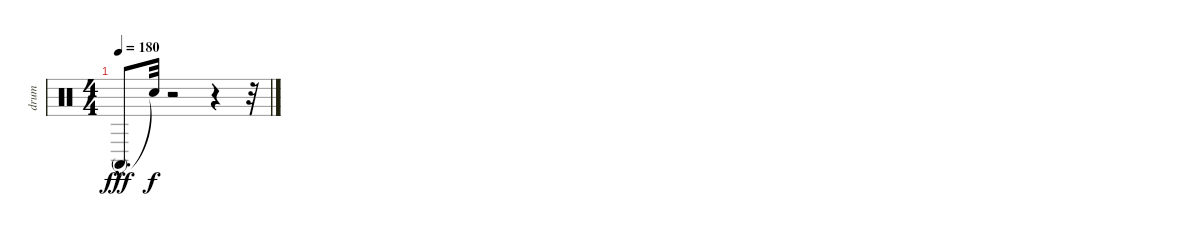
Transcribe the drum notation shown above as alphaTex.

\track ("drum" "drum") {instrument percussion}
\staff {score}
\articulation defaults
\ts (4 4)
\tempo 180
\clef neutral
\ks c "Conga high (mute)"{hac}.8{d dy fff} "Snare (hit)"{t}.32{dy f}
r.2 r.4 r.32
